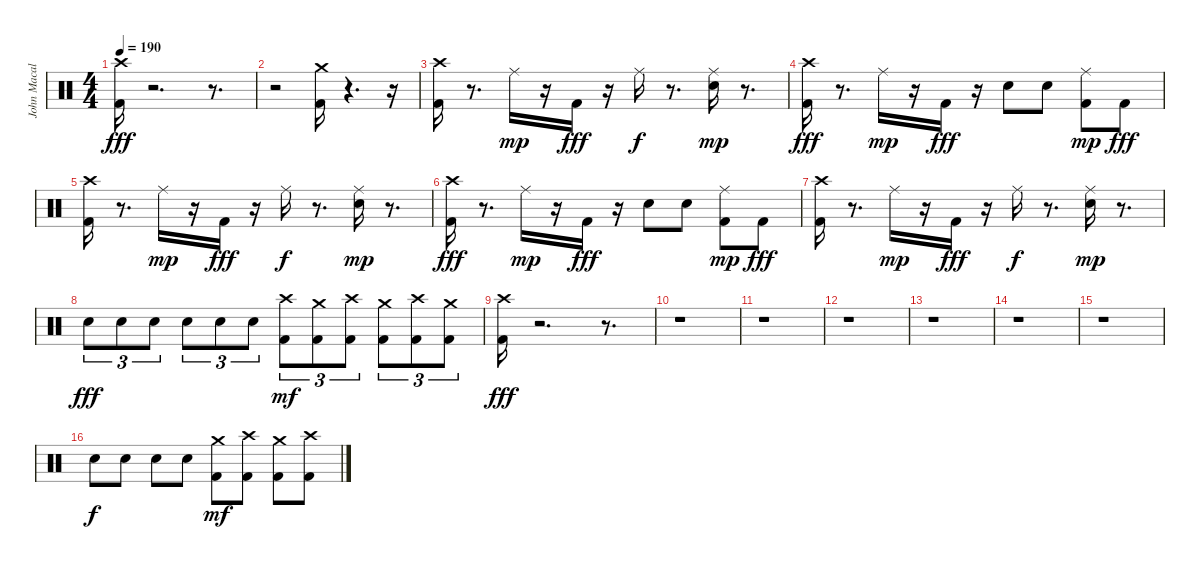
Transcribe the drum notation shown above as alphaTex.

\track ("John Macaluso drums" "John Macal") {instrument percussion}
\staff {score}
\articulation defaults
\ts (4 4)
\tempo 190
\clef neutral
\ks c
("Kick (hit) 2" "Crash high (hit)").16{dy fff} r.2{d} r.8{d} |
r.2 ("Kick (hit) 2" "Crash medium (hit)").16 r.4{d} r.16 |
("Kick (hit) 2" "Crash high (hit)").16 r.8{d} "Ride (middle)".16{dy mp} r.16 "Kick (hit) 2".16{dy fff} r.16 "Ride (middle)".16{dy f} r.8{d} ("Snare (hit) 2" "Ride (middle)").16{dy mp} r.8{d} |
("Kick (hit) 2" "Crash high (hit)").16{dy fff} r.8{d} "Ride (middle)".16{dy mp} r.16 "Kick (hit) 2".16{dy fff} r.16 "Snare (hit) 2".8 "Snare (hit) 2".8 ("Kick (hit) 2" "Ride (middle)").8{dy mp} "Kick (hit) 2".8{dy fff} |
("Kick (hit) 2" "Crash high (hit)").16 r.8{d} "Ride (middle)".16{dy mp} r.16 "Kick (hit) 2".16{dy fff} r.16 "Ride (middle)".16{dy f} r.8{d} ("Snare (hit) 2" "Ride (middle)").16{dy mp} r.8{d} |
("Kick (hit) 2" "Crash high (hit)").16{dy fff} r.8{d} "Ride (middle)".16{dy mp} r.16 "Kick (hit) 2".16{dy fff} r.16 "Snare (hit) 2".8 "Snare (hit) 2".8 ("Kick (hit) 2" "Ride (middle)").8{dy mp} "Kick (hit) 2".8{dy fff} |
("Kick (hit) 2" "Crash high (hit)").16 r.8{d} "Ride (middle)".16{dy mp} r.16 "Kick (hit) 2".16{dy fff} r.16 "Ride (middle)".16{dy f} r.8{d} ("Snare (hit) 2" "Ride (middle)").16{dy mp} r.8{d} |
"Snare (hit) 2".8{tu (3 2) dy fff} "Snare (hit) 2".8{tu (3 2)} "Snare (hit) 2".8{tu (3 2)} "Snare (hit) 2".8{tu (3 2)} "Snare (hit) 2".8{tu (3 2)} "Snare (hit) 2".8{tu (3 2)} ("Kick (hit) 2" "Crash high (hit)").8{tu (3 2) dy mf} ("Kick (hit) 2" "Crash medium (hit)").8{tu (3 2)} ("Kick (hit) 2" "Crash high (hit)").8{tu (3 2)} ("Kick (hit) 2" "Crash medium (hit)").8{tu (3 2)} ("Kick (hit) 2" "Crash high (hit)").8{tu (3 2)} ("Kick (hit) 2" "Crash medium (hit)").8{tu (3 2)} |
("Kick (hit) 2" "Crash high (hit)").16{dy fff} r.2{d} r.8{d} |
r.1 |
r.1 |
r.1 |
r.1 |
r.1 |
r.1 |
"Electric Snare (hit)".8{dy f} "Electric Snare (hit)".8 "Electric Snare (hit)".8 "Electric Snare (hit)".8 ("Kick (hit) 2" "Crash medium (hit)").8{dy mf} ("Kick (hit) 2" "Crash high (hit)").8 ("Kick (hit) 2" "Crash medium (hit)").8 ("Kick (hit) 2" "Crash high (hit)").8
